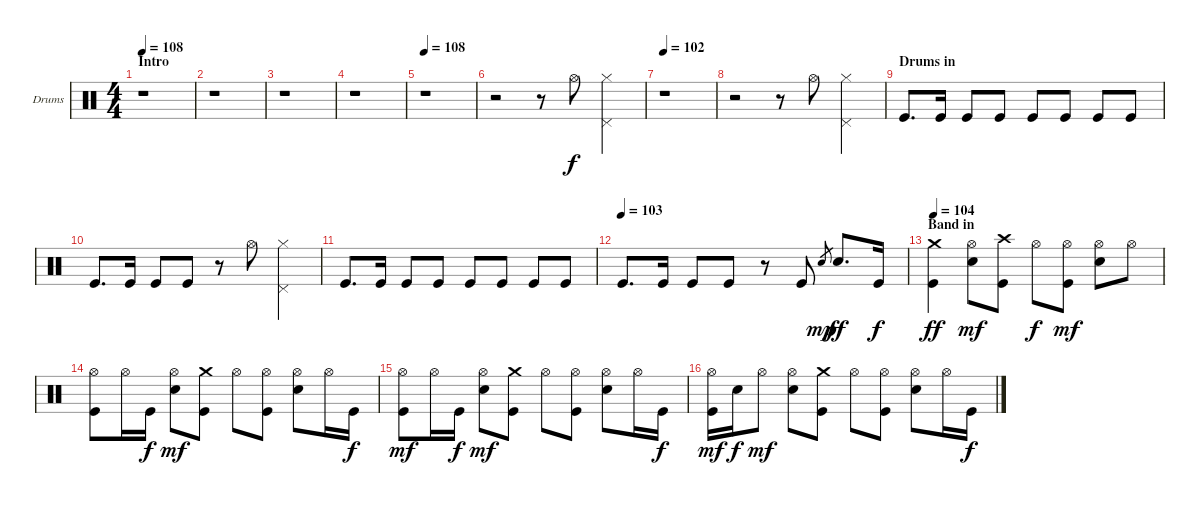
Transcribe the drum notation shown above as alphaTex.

\bracketExtendMode groupsimilarinstruments
\firstSystemTrackNameOrientation horizontal
\otherSystemsTrackNameOrientation horizontal
\track ("Drumkit" "Drums") {instrument percussion}
\staff {score}
\articulation defaults
\ts (4 4)
\section ("" "Intro")
\tempo 108
\clef neutral
\ks c
r.1{dy f} |
r.1 |
r.1 |
r.1 |
\tempo 108
r.1 |
r.2 r.8 "Hi-Hat (open)".8 ("Hi-Hat (closed)" "Pedal Hi-Hat (hit)").4 |
\tempo 102
r.1 |
r.2 r.8 "Hi-Hat (open)".8 ("Hi-Hat (closed)" "Pedal Hi-Hat (hit)").4 |
\section ("" "Drums in")
"Kick (hit)".8{d} "Kick (hit)".16 "Kick (hit)".8 "Kick (hit)".8 "Kick (hit)".8 "Kick (hit)".8 "Kick (hit)".8 "Kick (hit)".8 |
"Kick (hit)".8{d} "Kick (hit)".16 "Kick (hit)".8 "Kick (hit)".8 r.8 "Hi-Hat (open)".8 ("Hi-Hat (closed)" "Pedal Hi-Hat (hit)").4 |
"Kick (hit)".8{d} "Kick (hit)".16 "Kick (hit)".8 "Kick (hit)".8 "Kick (hit)".8 "Kick (hit)".8 "Kick (hit)".8 "Kick (hit)".8 |
\tempo (103)
"Kick (hit)".8{d} "Kick (hit)".16 "Kick (hit)".8 "Kick (hit)".8 r.8 "Kick (hit)".8 "Snare (hit) 2".8{gr dy mp} "Snare (hit) 2".8{d dy ff} "Kick (hit)".16{dy f} |
\section ("" "Band in")
\tempo 104
("Crash medium (hit)" "Kick (hit)").4{dy ff} ("Hi-Hat (open)" "Snare (hit) 2").8{dy mf} ("Crash high (hit)" "Kick (hit)").8 "Hi-Hat (open)".8{dy f} ("Hi-Hat (open)" "Kick (hit)").8{dy mf} ("Hi-Hat (open)" "Snare (hit) 2").8 "Hi-Hat (open)".8 |
("Hi-Hat (open)" "Kick (hit)").8 "Hi-Hat (open)".16 "Kick (hit)".16{dy f} ("Hi-Hat (open)" "Snare (hit) 2").8{dy mf} ("Crash medium (hit)" "Kick (hit)").8 "Hi-Hat (open)".8 ("Hi-Hat (open)" "Kick (hit)").8 ("Hi-Hat (open)" "Snare (hit) 2").8 "Hi-Hat (open)".16 "Kick (hit)".16{dy f} |
("Hi-Hat (open)" "Kick (hit)").8{dy mf} "Hi-Hat (open)".16 "Kick (hit)".16{dy f} ("Hi-Hat (open)" "Snare (hit) 2").8{dy mf} ("Crash medium (hit)" "Kick (hit)").8 "Hi-Hat (open)".8 ("Hi-Hat (open)" "Kick (hit)").8 ("Hi-Hat (open)" "Snare (hit) 2").8 "Hi-Hat (open)".16 "Kick (hit)".16{dy f} |
("Hi-Hat (open)" "Kick (hit)").16{dy mf} "Snare (hit) 2".16{dy f} "Hi-Hat (open)".8{dy mf} ("Hi-Hat (open)" "Snare (hit) 2").8 ("Crash medium (hit)" "Kick (hit)").8 "Hi-Hat (open)".8 ("Hi-Hat (open)" "Kick (hit)").8 ("Hi-Hat (open)" "Snare (hit) 2").8 "Hi-Hat (open)".16 "Kick (hit)".16{dy f}
